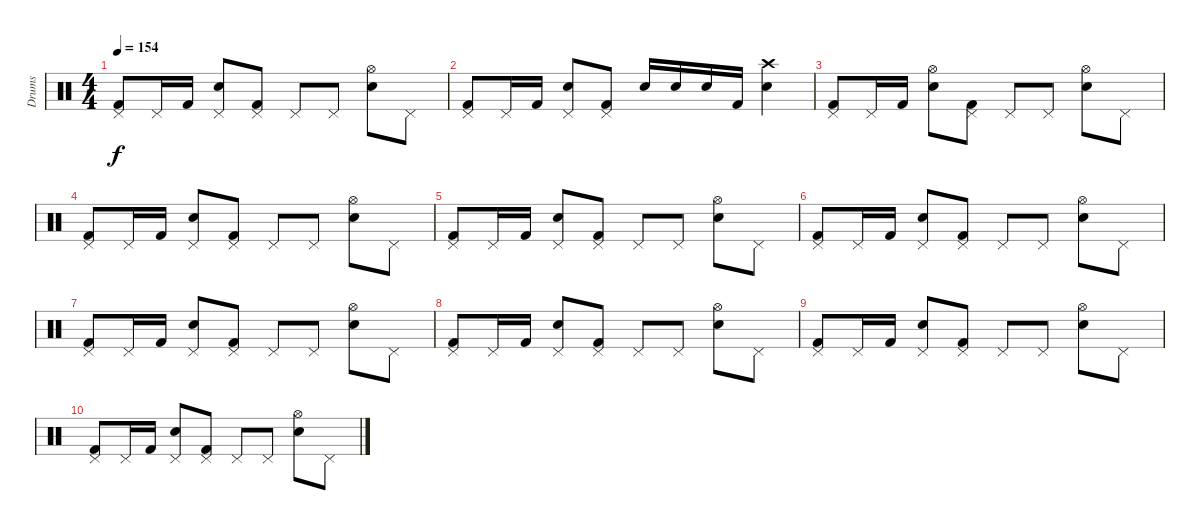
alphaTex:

\track ("Drums" "Drums") {instrument percussion}
\staff {score}
\articulation defaults
\ts (4 4)
\tempo 154
\clef neutral
\ks c
("Pedal Hi-Hat (hit)" "Kick (hit) 2").8{dy f} "Pedal Hi-Hat (hit)".16 "Kick (hit) 2".16 ("Pedal Hi-Hat (hit)" "Electric Snare (hit)").8 ("Pedal Hi-Hat (hit)" "Kick (hit) 2").8 "Pedal Hi-Hat (hit)".8 "Pedal Hi-Hat (hit)".8 ("Hi-Hat (open)" "Electric Snare (hit)").8 "Pedal Hi-Hat (hit)".8 |
("Pedal Hi-Hat (hit)" "Kick (hit) 2").8 "Pedal Hi-Hat (hit)".16 "Kick (hit) 2".16 ("Pedal Hi-Hat (hit)" "Electric Snare (hit)").8 ("Pedal Hi-Hat (hit)" "Kick (hit) 2").8 "Electric Snare (hit)".16 "Electric Snare (hit)".16 "Electric Snare (hit)".16 "Kick (hit) 2".16 ("Crash high (hit)" "Electric Snare (hit)").4 |
("Pedal Hi-Hat (hit)" "Kick (hit) 2").8 "Pedal Hi-Hat (hit)".16 "Kick (hit) 2".16 ("Hi-Hat (open)" "Electric Snare (hit)").8 ("Pedal Hi-Hat (hit)" "Kick (hit) 2").8 "Pedal Hi-Hat (hit)".8 "Pedal Hi-Hat (hit)".8 ("Hi-Hat (open)" "Electric Snare (hit)").8 "Pedal Hi-Hat (hit)".8 |
("Pedal Hi-Hat (hit)" "Kick (hit) 2").8 "Pedal Hi-Hat (hit)".16 "Kick (hit) 2".16 ("Pedal Hi-Hat (hit)" "Electric Snare (hit)").8 ("Pedal Hi-Hat (hit)" "Kick (hit) 2").8 "Pedal Hi-Hat (hit)".8 "Pedal Hi-Hat (hit)".8 ("Hi-Hat (open)" "Electric Snare (hit)").8 "Pedal Hi-Hat (hit)".8 |
("Pedal Hi-Hat (hit)" "Kick (hit) 2").8 "Pedal Hi-Hat (hit)".16 "Kick (hit) 2".16 ("Pedal Hi-Hat (hit)" "Electric Snare (hit)").8 ("Pedal Hi-Hat (hit)" "Kick (hit) 2").8 "Pedal Hi-Hat (hit)".8 "Pedal Hi-Hat (hit)".8 ("Hi-Hat (open)" "Electric Snare (hit)").8 "Pedal Hi-Hat (hit)".8 |
("Pedal Hi-Hat (hit)" "Kick (hit) 2").8 "Pedal Hi-Hat (hit)".16 "Kick (hit) 2".16 ("Pedal Hi-Hat (hit)" "Electric Snare (hit)").8 ("Pedal Hi-Hat (hit)" "Kick (hit) 2").8 "Pedal Hi-Hat (hit)".8 "Pedal Hi-Hat (hit)".8 ("Hi-Hat (open)" "Electric Snare (hit)").8 "Pedal Hi-Hat (hit)".8 |
("Pedal Hi-Hat (hit)" "Kick (hit) 2").8{volume 0} "Pedal Hi-Hat (hit)".16 "Kick (hit) 2".16 ("Pedal Hi-Hat (hit)" "Electric Snare (hit)").8 ("Pedal Hi-Hat (hit)" "Kick (hit) 2").8 "Pedal Hi-Hat (hit)".8 "Pedal Hi-Hat (hit)".8 ("Hi-Hat (open)" "Electric Snare (hit)").8 "Pedal Hi-Hat (hit)".8 |
("Pedal Hi-Hat (hit)" "Kick (hit) 2").8 "Pedal Hi-Hat (hit)".16 "Kick (hit) 2".16 ("Pedal Hi-Hat (hit)" "Electric Snare (hit)").8 ("Pedal Hi-Hat (hit)" "Kick (hit) 2").8 "Pedal Hi-Hat (hit)".8 "Pedal Hi-Hat (hit)".8 ("Hi-Hat (open)" "Electric Snare (hit)").8 "Pedal Hi-Hat (hit)".8 |
("Pedal Hi-Hat (hit)" "Kick (hit) 2").8 "Pedal Hi-Hat (hit)".16 "Kick (hit) 2".16 ("Pedal Hi-Hat (hit)" "Electric Snare (hit)").8 ("Pedal Hi-Hat (hit)" "Kick (hit) 2").8 "Pedal Hi-Hat (hit)".8 "Pedal Hi-Hat (hit)".8 ("Hi-Hat (open)" "Electric Snare (hit)").8 "Pedal Hi-Hat (hit)".8 |
("Pedal Hi-Hat (hit)" "Kick (hit) 2").8 "Pedal Hi-Hat (hit)".16 "Kick (hit) 2".16 ("Pedal Hi-Hat (hit)" "Electric Snare (hit)").8 ("Pedal Hi-Hat (hit)" "Kick (hit) 2").8 "Pedal Hi-Hat (hit)".8 "Pedal Hi-Hat (hit)".8 ("Hi-Hat (open)" "Electric Snare (hit)").8 "Pedal Hi-Hat (hit)".8
